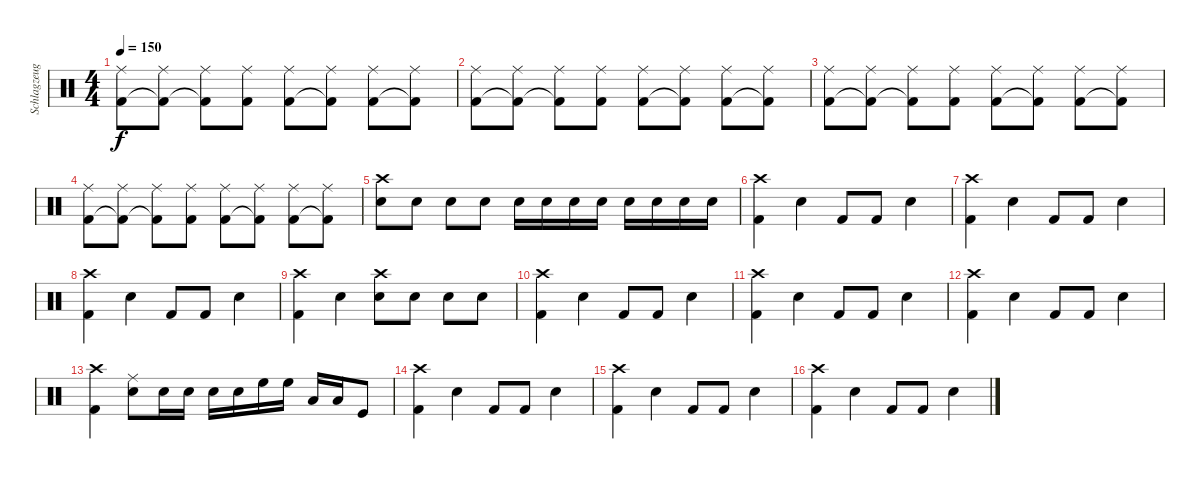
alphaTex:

\track ("Schlagzeug" "Schlagzeug") {instrument percussion}
\staff {score}
\articulation defaults
\ts (4 4)
\tempo 150
\clef neutral
\ks c
("Ride (middle)" "Kick (hit) 2").8{dy f} ("Ride (middle)" "Kick (hit) 2"{t}).8 ("Ride (middle)" "Kick (hit) 2"{t}).8 ("Ride (middle)" "Kick (hit) 2").8 ("Ride (middle)" "Kick (hit) 2").8 ("Ride (middle)" "Kick (hit) 2"{t}).8 ("Ride (middle)" "Kick (hit) 2").8 ("Ride (middle)" "Kick (hit) 2"{t}).8 |
("Ride (middle)" "Kick (hit) 2").8 ("Ride (middle)" "Kick (hit) 2"{t}).8 ("Ride (middle)" "Kick (hit) 2"{t}).8 ("Ride (middle)" "Kick (hit) 2").8 ("Ride (middle)" "Kick (hit) 2").8 ("Ride (middle)" "Kick (hit) 2"{t}).8 ("Ride (middle)" "Kick (hit) 2").8 ("Ride (middle)" "Kick (hit) 2"{t}).8 |
("Ride (middle)" "Kick (hit) 2").8 ("Ride (middle)" "Kick (hit) 2"{t}).8 ("Ride (middle)" "Kick (hit) 2"{t}).8 ("Ride (middle)" "Kick (hit) 2").8 ("Ride (middle)" "Kick (hit) 2").8 ("Ride (middle)" "Kick (hit) 2"{t}).8 ("Ride (middle)" "Kick (hit) 2").8 ("Ride (middle)" "Kick (hit) 2"{t}).8 |
("Ride (middle)" "Kick (hit) 2").8 ("Ride (middle)" "Kick (hit) 2"{t}).8 ("Ride (middle)" "Kick (hit) 2"{t}).8 ("Ride (middle)" "Kick (hit) 2").8 ("Ride (middle)" "Kick (hit) 2").8 ("Ride (middle)" "Kick (hit) 2"{t}).8 ("Ride (middle)" "Kick (hit) 2").8 ("Ride (middle)" "Kick (hit) 2"{t}).8 |
("Crash high (hit)" "Snare (hit) 2").8 "Snare (hit) 2".8 "Snare (hit) 2".8 "Snare (hit) 2".8 "Snare (hit) 2".16 "Snare (hit) 2".16 "Snare (hit) 2".16 "Snare (hit) 2".16 "Snare (hit) 2".16 "Snare (hit) 2".16 "Snare (hit) 2".16 "Snare (hit) 2".16 |
("Crash high (hit)" "Kick (hit) 2").4 "Snare (hit) 2".4 "Kick (hit) 2".8 "Kick (hit) 2".8 "Snare (hit) 2".4 |
("Crash high (hit)" "Kick (hit) 2").4 "Snare (hit) 2".4 "Kick (hit) 2".8 "Kick (hit) 2".8 "Snare (hit) 2".4 |
("Crash high (hit)" "Kick (hit) 2").4 "Snare (hit) 2".4 "Kick (hit) 2".8 "Kick (hit) 2".8 "Snare (hit) 2".4 |
("Crash high (hit)" "Kick (hit) 2").4 "Snare (hit) 2".4 ("Crash high (hit)" "Snare (hit) 2").8 "Snare (hit) 2".8 "Snare (hit) 2".8 "Snare (hit) 2".8 |
("Crash high (hit)" "Kick (hit) 2").4 "Snare (hit) 2".4 "Kick (hit) 2".8 "Kick (hit) 2".8 "Snare (hit) 2".4 |
("Crash high (hit)" "Kick (hit) 2").4 "Snare (hit) 2".4 "Kick (hit) 2".8 "Kick (hit) 2".8 "Snare (hit) 2".4 |
("Crash high (hit)" "Kick (hit) 2").4 "Snare (hit) 2".4 "Kick (hit) 2".8 "Kick (hit) 2".8 "Snare (hit) 2".4 |
("Crash high (hit)" "Kick (hit) 2").4 ("Ride (middle)" "Snare (hit) 2").8 "Snare (hit) 2".16 "Snare (hit) 2".16 "Snare (hit) 2".16 "Snare (hit) 2".16 "High Floor Tom (hit)".16 "High Floor Tom (hit)".16 "Low Tom (hit)".16 "Low Tom (hit)".16 "Kick (hit)".8 |
("Crash high (hit)" "Kick (hit) 2").4 "Snare (hit) 2".4 "Kick (hit) 2".8 "Kick (hit) 2".8 "Snare (hit) 2".4 |
("Crash high (hit)" "Kick (hit) 2").4 "Snare (hit) 2".4 "Kick (hit) 2".8 "Kick (hit) 2".8 "Snare (hit) 2".4 |
("Crash high (hit)" "Kick (hit) 2").4 "Snare (hit) 2".4 "Kick (hit) 2".8 "Kick (hit) 2".8 "Snare (hit) 2".4
